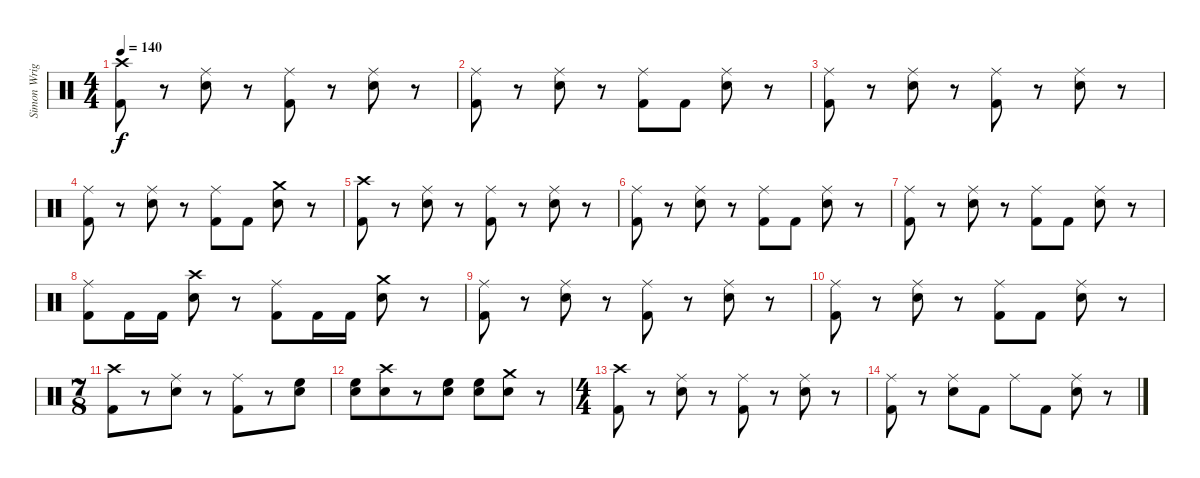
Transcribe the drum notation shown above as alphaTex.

\track ("Simon Wright" "Simon Wrig") {instrument percussion}
\staff {score}
\articulation defaults
\ts (4 4)
\tempo 140
\clef neutral
\ks c
("Crash high (hit)" "Kick (hit) 2").8{dy f} r.8 ("Ride (middle)" "Snare (hit) 2").8 r.8 ("Ride (middle)" "Kick (hit) 2").8 r.8 ("Ride (middle)" "Snare (hit) 2").8 r.8 |
("Ride (middle)" "Kick (hit) 2").8 r.8 ("Ride (middle)" "Snare (hit) 2").8 r.8 ("Ride (middle)" "Kick (hit) 2").8 "Kick (hit) 2".8 ("Ride (middle)" "Snare (hit) 2").8 r.8 |
("Ride (middle)" "Kick (hit) 2").8 r.8 ("Ride (middle)" "Snare (hit) 2").8 r.8 ("Ride (middle)" "Kick (hit) 2").8 r.8 ("Ride (middle)" "Snare (hit) 2").8 r.8 |
("Ride (middle)" "Kick (hit) 2").8 r.8 ("Ride (middle)" "Snare (hit) 2").8 r.8 ("Ride (middle)" "Kick (hit) 2").8 "Kick (hit) 2".8 ("Crash medium (hit)" "Snare (hit) 2").8 r.8 |
("Crash high (hit)" "Kick (hit) 2").8 r.8 ("Ride (middle)" "Snare (hit) 2").8 r.8 ("Ride (middle)" "Kick (hit) 2").8 r.8 ("Ride (middle)" "Snare (hit) 2").8 r.8 |
("Ride (middle)" "Kick (hit) 2").8 r.8 ("Ride (middle)" "Snare (hit) 2").8 r.8 ("Ride (middle)" "Kick (hit) 2").8 "Kick (hit) 2".8 ("Ride (middle)" "Snare (hit) 2").8 r.8 |
("Ride (middle)" "Kick (hit) 2").8 r.8 ("Ride (middle)" "Snare (hit) 2").8 r.8 ("Ride (middle)" "Kick (hit) 2").8 "Kick (hit) 2".8 ("Ride (middle)" "Snare (hit) 2").8 r.8 |
("Ride (middle)" "Kick (hit) 2").8 "Kick (hit) 2".16 "Kick (hit) 2".16 ("Crash high (hit)" "Snare (hit) 2").8 r.8 ("Ride (middle)" "Kick (hit) 2").8 "Kick (hit) 2".16 "Kick (hit) 2".16 ("Crash medium (hit)" "Snare (hit) 2").8 r.8 |
("Ride (middle)" "Kick (hit) 2").8 r.8 ("Ride (middle)" "Snare (hit) 2").8 r.8 ("Ride (middle)" "Kick (hit) 2").8 r.8 ("Ride (middle)" "Snare (hit) 2").8 r.8 |
("Ride (middle)" "Kick (hit) 2").8 r.8 ("Ride (middle)" "Snare (hit) 2").8 r.8 ("Ride (middle)" "Kick (hit) 2").8 "Kick (hit) 2".8 ("Ride (middle)" "Snare (hit) 2").8 r.8 |
\ts (7 8)
("Crash high (hit)" "Kick (hit) 2").8 r.8 ("Ride (middle)" "Snare (hit) 2").8 r.8 ("Ride (middle)" "Kick (hit) 2").8 r.8 ("High Floor Tom (hit)" "Snare (hit) 2").8 |
("High Floor Tom (hit)" "Snare (hit) 2").8 ("Crash high (hit)" "Snare (hit) 2").8 r.8 ("High Floor Tom (hit)" "Snare (hit) 2").8 ("High Floor Tom (hit)" "Snare (hit) 2").8 ("Crash medium (hit)" "Snare (hit) 2").8 r.8 |
\ts (4 4)
("Crash high (hit)" "Kick (hit) 2").8 r.8 ("Ride (middle)" "Snare (hit) 2").8 r.8 ("Ride (middle)" "Kick (hit) 2").8 r.8 ("Ride (middle)" "Snare (hit) 2").8 r.8 |
("Ride (middle)" "Kick (hit) 2").8 r.8 ("Ride (middle)" "Snare (hit) 2").8 "Kick (hit) 2".8 "Ride (middle)".8 "Kick (hit) 2".8 ("Ride (middle)" "Snare (hit) 2").8 r.8
